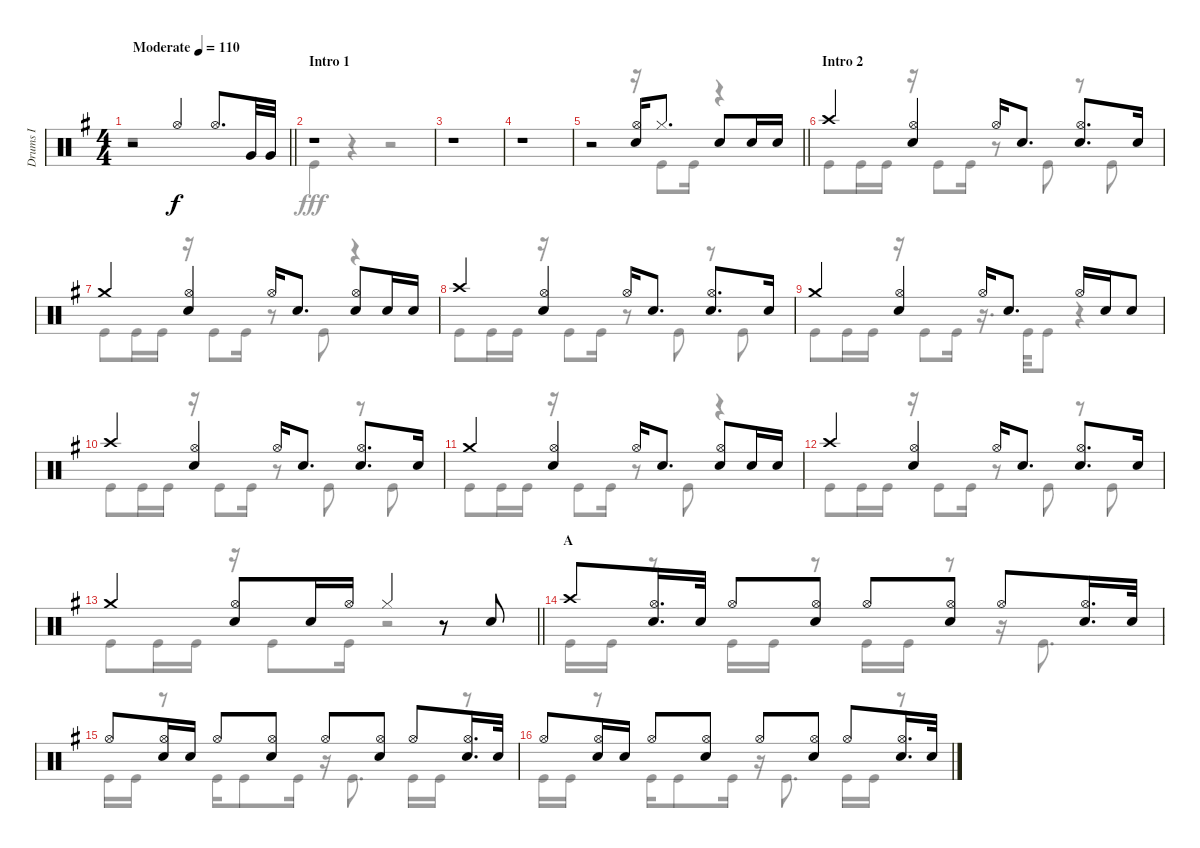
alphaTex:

\track ("Drums I" "Drums I") {instrument percussion}
\staff {score}
\articulation defaults
\voice
\ts (4 4)
\tempo (110 "Moderate")
\clef neutral
\barLineRight lightlight
\ks g
r.2{dy f} "Hi-Hat (open)".4 "Hi-Hat (open)".8{d} "Very Low Tom (hit)".32 "Very Low Tom (hit)".32 |
\section ("" "Intro 1")
r.1 |
r.1 |
r.1 |
\barLineRight lightlight
r.2 ("Hi-Hat (open)" "Snare (hit) 2").16 "Hi-Hat (closed)".8{d} "Snare (hit) 2".8 "Snare (hit) 2".16 "Snare (hit) 2".16 |
\section ("" "Intro 2")
"Crash high (hit)".4 ("Hi-Hat (open)" "Snare (hit) 2").4 "Hi-Hat (open)".16 "Snare (hit) 2".8{d} ("Hi-Hat (open)" "Snare (hit) 2").8{d} "Snare (hit) 2".16 |
"Crash medium (hit)".4 ("Hi-Hat (open)" "Snare (hit) 2").4 "Hi-Hat (open)".16 "Snare (hit) 2".8{d} ("Hi-Hat (open)" "Snare (hit) 2").8 "Snare (hit) 2".16 "Snare (hit) 2".16 |
"Crash high (hit)".4 ("Hi-Hat (open)" "Snare (hit) 2").4 "Hi-Hat (open)".16 "Snare (hit) 2".8{d} ("Hi-Hat (open)" "Snare (hit) 2").8{d} "Snare (hit) 2".16 |
"Crash medium (hit)".4 ("Hi-Hat (open)" "Snare (hit) 2").4 "Hi-Hat (open)".16 "Snare (hit) 2".8{d} "Hi-Hat (open)".16 "Snare (hit) 2".16 "Snare (hit) 2".8 |
"Crash high (hit)".4 ("Hi-Hat (open)" "Snare (hit) 2").4 "Hi-Hat (open)".16 "Snare (hit) 2".8{d} ("Hi-Hat (open)" "Snare (hit) 2").8{d} "Snare (hit) 2".16 |
"Crash medium (hit)".4 ("Hi-Hat (open)" "Snare (hit) 2").4 "Hi-Hat (open)".16 "Snare (hit) 2".8{d} ("Hi-Hat (open)" "Snare (hit) 2").8 "Snare (hit) 2".16 "Snare (hit) 2".16 |
"Crash high (hit)".4 ("Hi-Hat (open)" "Snare (hit) 2").4 "Hi-Hat (open)".16 "Snare (hit) 2".8{d} ("Hi-Hat (open)" "Snare (hit) 2").8{d} "Snare (hit) 2".16 |
\barLineRight lightlight "Crash medium (hit)".4
("Hi-Hat (open)" "Snare (hit) 2").8 "Snare (hit) 2".16 "Hi-Hat (open)".16 "Hi-Hat (closed)".4 r.8 "Snare (hit) 2".8 |
\section ("" "A")
"Crash high (hit)".8 ("Hi-Hat (open)" "Snare (hit) 2").16{d} "Snare (hit) 2".32 "Hi-Hat (open)".8 ("Hi-Hat (open)" "Snare (hit) 2").8 "Hi-Hat (open)".8 ("Hi-Hat (open)" "Snare (hit) 2").8 "Hi-Hat (open)".8 ("Hi-Hat (open)" "Snare (hit) 2").16{d} "Snare (hit) 2".32 |
"Hi-Hat (open)".8 ("Hi-Hat (open)" "Snare (hit) 2").16 "Snare (hit) 2".16 "Hi-Hat (open)".8 ("Hi-Hat (open)" "Snare (hit) 2").8 "Hi-Hat (open)".8 ("Hi-Hat (open)" "Snare (hit) 2").8 "Hi-Hat (open)".8 ("Hi-Hat (open)" "Snare (hit) 2").16{d} "Snare (hit) 2".32 |
"Hi-Hat (open)".8 ("Hi-Hat (open)" "Snare (hit) 2").16 "Snare (hit) 2".16 "Hi-Hat (open)".8 ("Hi-Hat (open)" "Snare (hit) 2").8 "Hi-Hat (open)".8 ("Hi-Hat (open)" "Snare (hit) 2").8 "Hi-Hat (open)".8 ("Hi-Hat (open)" "Snare (hit) 2").16{d} "Snare (hit) 2".32
\voice
\clef neutral
\ottava regular
\simile none
\barLineRight lightlight
\ks g
r.1{dy fff} |
"Kick (hit)".4 r.4 r.2 |
r.1 |
r.1 |
\barLineRight lightlight
r.2 r.16 "Kick (hit)".8 "Kick (hit)".16 r.4 |
"Kick (hit)".8 "Kick (hit)".16 "Kick (hit)".16 r.16 "Kick (hit)".8 "Kick (hit)".16 r.8 "Kick (hit)".8 r.8 "Kick (hit)".8 |
"Kick (hit)".8 "Kick (hit)".16 "Kick (hit)".16 r.16 "Kick (hit)".8 "Kick (hit)".16 r.8 "Kick (hit)".8 r.4 |
"Kick (hit)".8 "Kick (hit)".16 "Kick (hit)".16 r.16 "Kick (hit)".8 "Kick (hit)".16 r.8 "Kick (hit)".8 r.8 "Kick (hit)".8 |
"Kick (hit)".8 "Kick (hit)".16 "Kick (hit)".16 r.16 "Kick (hit)".8 "Kick (hit)".16 r.16{d} "Kick (hit)".32 "Kick (hit)".8 r.4 |
"Kick (hit)".8 "Kick (hit)".16 "Kick (hit)".16 r.16 "Kick (hit)".8 "Kick (hit)".16 r.8 "Kick (hit)".8 r.8 "Kick (hit)".8 |
"Kick (hit)".8 "Kick (hit)".16 "Kick (hit)".16 r.16 "Kick (hit)".8 "Kick (hit)".16 r.8 "Kick (hit)".8 r.4 |
"Kick (hit)".8 "Kick (hit)".16 "Kick (hit)".16 r.16 "Kick (hit)".8 "Kick (hit)".16 r.8 "Kick (hit)".8 r.8 "Kick (hit)".8 |
\barLineRight lightlight "Kick (hit)".8 "Kick (hit)".16 "Kick (hit)".16
r.16 "Kick (hit)".8 "Kick (hit)".16 r.2 |
"Kick (hit)".16 "Kick (hit)".16 r.8 "Kick (hit)".16 "Kick (hit)".16 r.8 "Kick (hit)".16 "Kick (hit)".16 r.8 r.16 "Kick (hit)".8{d} |
"Kick (hit)".16 "Kick (hit)".16 r.8 "Kick (hit)".16 "Kick (hit)".8 "Kick (hit)".16 r.16 "Kick (hit)".8{d} "Kick (hit)".16 "Kick (hit)".16 r.8 |
"Kick (hit)".16 "Kick (hit)".16 r.8 "Kick (hit)".16 "Kick (hit)".8 "Kick (hit)".16 r.16 "Kick (hit)".8{d} "Kick (hit)".16 "Kick (hit)".16 r.8
